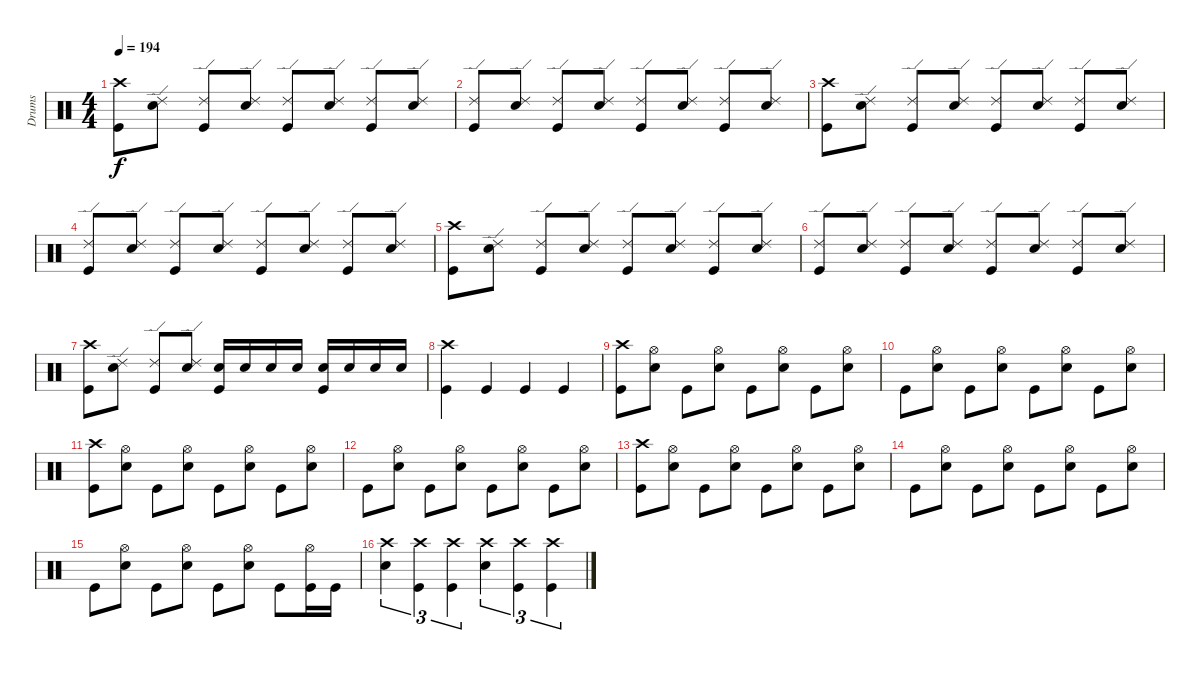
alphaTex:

\track ("Drums" "Drums") {instrument percussion}
\staff {score}
\articulation defaults
\ts (4 4)
\tempo 194
\clef neutral
\ks c
("Crash high (hit)" "Kick (hit)").8{dy f} ("Ride (edge) 2" "Electric Snare (hit)").8 ("Ride (edge) 2" "Kick (hit)").8 ("Ride (edge) 2" "Electric Snare (hit)").8 ("Ride (edge) 2" "Kick (hit)").8 ("Ride (edge) 2" "Electric Snare (hit)").8 ("Ride (edge) 2" "Kick (hit)").8 ("Ride (edge) 2" "Electric Snare (hit)").8 |
("Ride (edge) 2" "Kick (hit)").8 ("Ride (edge) 2" "Electric Snare (hit)").8 ("Ride (edge) 2" "Kick (hit)").8 ("Ride (edge) 2" "Electric Snare (hit)").8 ("Ride (edge) 2" "Kick (hit)").8 ("Ride (edge) 2" "Electric Snare (hit)").8 ("Ride (edge) 2" "Kick (hit)").8 ("Ride (edge) 2" "Electric Snare (hit)").8 |
("Crash high (hit)" "Kick (hit)").8 ("Ride (edge) 2" "Electric Snare (hit)").8 ("Ride (edge) 2" "Kick (hit)").8 ("Ride (edge) 2" "Electric Snare (hit)").8 ("Ride (edge) 2" "Kick (hit)").8 ("Ride (edge) 2" "Electric Snare (hit)").8 ("Ride (edge) 2" "Kick (hit)").8 ("Ride (edge) 2" "Electric Snare (hit)").8 |
("Ride (edge) 2" "Kick (hit)").8 ("Ride (edge) 2" "Electric Snare (hit)").8 ("Ride (edge) 2" "Kick (hit)").8 ("Ride (edge) 2" "Electric Snare (hit)").8 ("Ride (edge) 2" "Kick (hit)").8 ("Ride (edge) 2" "Electric Snare (hit)").8 ("Ride (edge) 2" "Kick (hit)").8 ("Ride (edge) 2" "Electric Snare (hit)").8 |
("Crash high (hit)" "Kick (hit)").8 ("Ride (edge) 2" "Electric Snare (hit)").8 ("Ride (edge) 2" "Kick (hit)").8 ("Ride (edge) 2" "Electric Snare (hit)").8 ("Ride (edge) 2" "Kick (hit)").8 ("Ride (edge) 2" "Electric Snare (hit)").8 ("Ride (edge) 2" "Kick (hit)").8 ("Ride (edge) 2" "Electric Snare (hit)").8 |
("Ride (edge) 2" "Kick (hit)").8 ("Ride (edge) 2" "Electric Snare (hit)").8 ("Ride (edge) 2" "Kick (hit)").8 ("Ride (edge) 2" "Electric Snare (hit)").8 ("Ride (edge) 2" "Kick (hit)").8 ("Ride (edge) 2" "Electric Snare (hit)").8 ("Ride (edge) 2" "Kick (hit)").8 ("Ride (edge) 2" "Electric Snare (hit)").8 |
("Crash high (hit)" "Kick (hit)").8 ("Ride (edge) 2" "Electric Snare (hit)").8 ("Ride (edge) 2" "Kick (hit)").8 ("Ride (edge) 2" "Electric Snare (hit)").8 ("Kick (hit)" "Electric Snare (hit)").16 "Electric Snare (hit)".16 "Electric Snare (hit)".16 "Electric Snare (hit)".16 ("Kick (hit)" "Electric Snare (hit)").16 "Electric Snare (hit)".16 "Electric Snare (hit)".16 "Electric Snare (hit)".16 |
("Crash high (hit)" "Kick (hit)").4 "Kick (hit)".4 "Kick (hit)".4 "Kick (hit)".4 |
("Crash high (hit)" "Kick (hit)").8 ("Hi-Hat (open)" "Electric Snare (hit)").8 "Kick (hit)".8 ("Hi-Hat (open)" "Electric Snare (hit)").8 "Kick (hit)".8 ("Hi-Hat (open)" "Electric Snare (hit)").8 "Kick (hit)".8 ("Hi-Hat (open)" "Electric Snare (hit)").8 |
"Kick (hit)".8 ("Hi-Hat (open)" "Electric Snare (hit)").8 "Kick (hit)".8 ("Hi-Hat (open)" "Electric Snare (hit)").8 "Kick (hit)".8 ("Hi-Hat (open)" "Electric Snare (hit)").8 "Kick (hit)".8 ("Hi-Hat (open)" "Electric Snare (hit)").8 |
("Crash high (hit)" "Kick (hit)").8 ("Hi-Hat (open)" "Electric Snare (hit)").8 "Kick (hit)".8 ("Hi-Hat (open)" "Electric Snare (hit)").8 "Kick (hit)".8 ("Hi-Hat (open)" "Electric Snare (hit)").8 "Kick (hit)".8 ("Hi-Hat (open)" "Electric Snare (hit)").8 |
"Kick (hit)".8 ("Hi-Hat (open)" "Electric Snare (hit)").8 "Kick (hit)".8 ("Hi-Hat (open)" "Electric Snare (hit)").8 "Kick (hit)".8 ("Hi-Hat (open)" "Electric Snare (hit)").8 "Kick (hit)".8 ("Hi-Hat (open)" "Electric Snare (hit)").8 |
("Crash high (hit)" "Kick (hit)").8 ("Hi-Hat (open)" "Electric Snare (hit)").8 "Kick (hit)".8 ("Hi-Hat (open)" "Electric Snare (hit)").8 "Kick (hit)".8 ("Hi-Hat (open)" "Electric Snare (hit)").8 "Kick (hit)".8 ("Hi-Hat (open)" "Electric Snare (hit)").8 |
"Kick (hit)".8 ("Hi-Hat (open)" "Electric Snare (hit)").8 "Kick (hit)".8 ("Hi-Hat (open)" "Electric Snare (hit)").8 "Kick (hit)".8 ("Hi-Hat (open)" "Electric Snare (hit)").8 "Kick (hit)".8 ("Hi-Hat (open)" "Electric Snare (hit)").8 |
"Kick (hit)".8 ("Hi-Hat (open)" "Electric Snare (hit)").8 "Kick (hit)".8 ("Hi-Hat (open)" "Electric Snare (hit)").8 "Kick (hit)".8 ("Hi-Hat (open)" "Electric Snare (hit)").8 "Kick (hit)".8 ("Hi-Hat (open)" "Kick (hit)").16 "Kick (hit)".16 |
("Crash high (hit)" "Electric Snare (hit)").4{tu (3 2)} ("Crash high (hit)" "Kick (hit)").4{tu (3 2)} ("Crash high (hit)" "Kick (hit)").4{tu (3 2)} ("Crash high (hit)" "Electric Snare (hit)").4{tu (3 2)} ("Crash high (hit)" "Kick (hit)").4{tu (3 2)} ("Crash high (hit)" "Kick (hit)").4{tu (3 2)}
